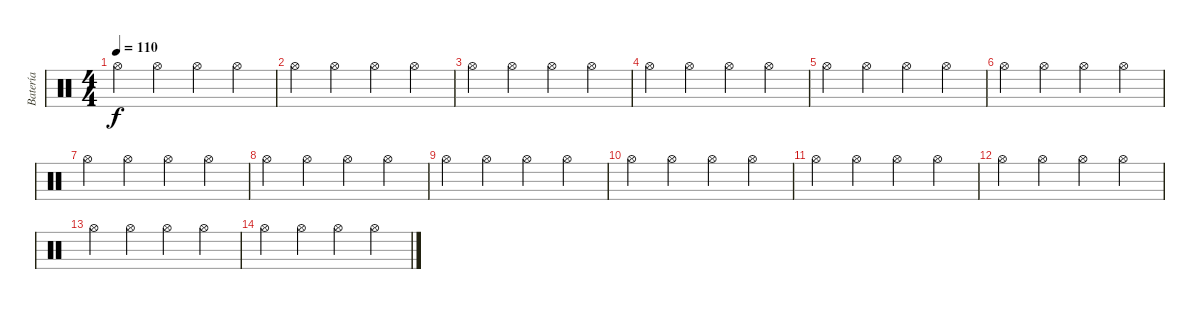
\track ("Batería" "Batería") {instrument percussion}
\staff {score}
\articulation defaults
\ts (4 4)
\tempo 110
\clef neutral
\ks c "Hi-Hat (open)".4{dy f} "Hi-Hat (open)".4 "Hi-Hat (open)".4 "Hi-Hat (open)".4
|
"Hi-Hat (open)".4 "Hi-Hat (open)".4 "Hi-Hat (open)".4 "Hi-Hat (open)".4 |
"Hi-Hat (open)".4 "Hi-Hat (open)".4 "Hi-Hat (open)".4 "Hi-Hat (open)".4 |
"Hi-Hat (open)".4 "Hi-Hat (open)".4 "Hi-Hat (open)".4 "Hi-Hat (open)".4 |
"Hi-Hat (open)".4 "Hi-Hat (open)".4 "Hi-Hat (open)".4 "Hi-Hat (open)".4 |
"Hi-Hat (open)".4 "Hi-Hat (open)".4 "Hi-Hat (open)".4 "Hi-Hat (open)".4 |
"Hi-Hat (open)".4 "Hi-Hat (open)".4 "Hi-Hat (open)".4 "Hi-Hat (open)".4 |
"Hi-Hat (open)".4 "Hi-Hat (open)".4 "Hi-Hat (open)".4 "Hi-Hat (open)".4 |
"Hi-Hat (open)".4 "Hi-Hat (open)".4 "Hi-Hat (open)".4 "Hi-Hat (open)".4 |
"Hi-Hat (open)".4 "Hi-Hat (open)".4 "Hi-Hat (open)".4 "Hi-Hat (open)".4 |
"Hi-Hat (open)".4 "Hi-Hat (open)".4 "Hi-Hat (open)".4 "Hi-Hat (open)".4 |
"Hi-Hat (open)".4 "Hi-Hat (open)".4 "Hi-Hat (open)".4 "Hi-Hat (open)".4 |
"Hi-Hat (open)".4 "Hi-Hat (open)".4 "Hi-Hat (open)".4 "Hi-Hat (open)".4 |
"Hi-Hat (open)".4 "Hi-Hat (open)".4 "Hi-Hat (open)".4 "Hi-Hat (open)".4
